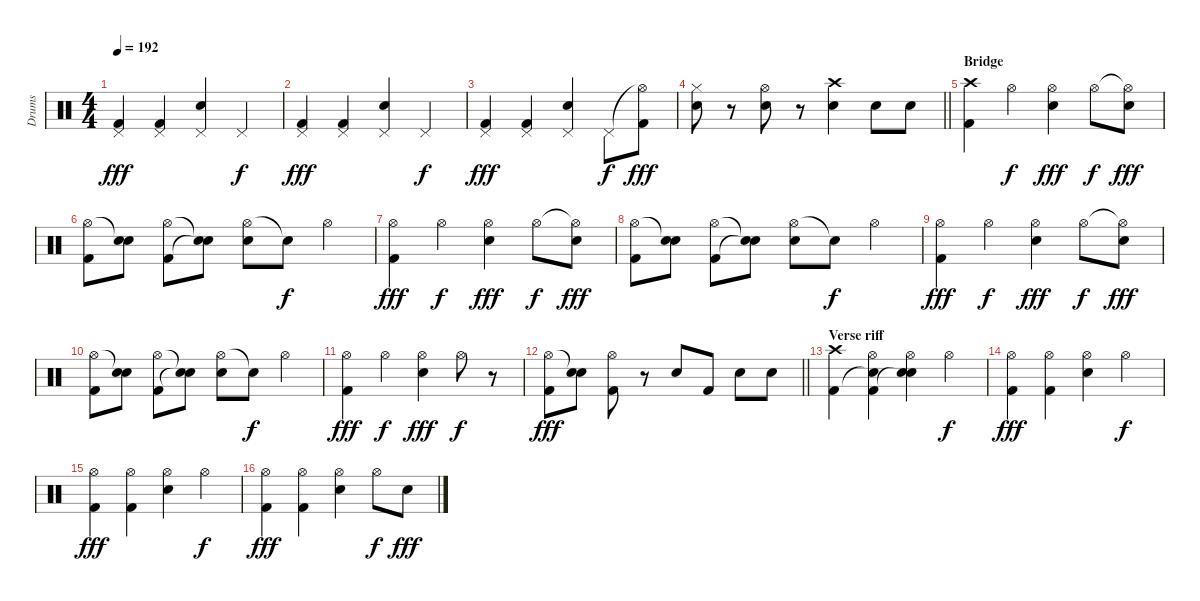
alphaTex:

\track ("Drums" "Drums") {instrument percussion}
\staff {score}
\articulation defaults
\ts (4 4)
\tempo 192
\clef neutral
\ks c
("Pedal Hi-Hat (hit)" "Kick (hit) 2").4{dy fff} ("Pedal Hi-Hat (hit)" "Kick (hit) 2").4 ("Pedal Hi-Hat (hit)" "Snare (hit) 2").4 "Pedal Hi-Hat (hit)".4{dy f} |
("Pedal Hi-Hat (hit)" "Kick (hit) 2").4{dy fff} ("Pedal Hi-Hat (hit)" "Kick (hit) 2").4 ("Pedal Hi-Hat (hit)" "Snare (hit) 2").4 "Pedal Hi-Hat (hit)".4{dy f} |
("Pedal Hi-Hat (hit)" "Kick (hit) 2").4{dy fff} ("Pedal Hi-Hat (hit)" "Kick (hit) 2").4 ("Pedal Hi-Hat (hit)" "Snare (hit) 2").4 "Pedal Hi-Hat (hit)".8{dy f} ("Hi-Hat (open)"{t} "Kick (hit) 2").8{dy fff} |
\barLineRight lightlight
("Hi-Hat (closed)" "Snare (hit) 2").8 r.8 ("Hi-Hat (open)" "Snare (hit) 2").8 r.8 ("Crash high (hit)" "Snare (hit) 2").4 "Snare (hit) 2".8 "Snare (hit) 2".8 |
\section ("" "Bridge")
("Crash high (hit)" "Kick (hit) 2").4 "Hi-Hat (open)".4{dy f} ("Hi-Hat (open)" "Snare (hit) 2").4{dy fff} "Hi-Hat (open)".8{dy f} ("Hi-Hat (open)"{t} "Snare (hit) 2").8{dy fff} |
("Hi-Hat (open)" "Kick (hit) 2").8 ("Snare (hit)"{t} "Snare (hit) 2").8 ("Hi-Hat (open)" "Kick (hit) 2").8 ("Snare (hit)"{t} "Snare (hit)"{t}).8 ("Hi-Hat (open)" "Snare (hit) 2").8 "Snare (hit)"{t}.8{dy f} "Hi-Hat (open)".4 |
("Hi-Hat (open)" "Kick (hit) 2").4{dy fff} "Hi-Hat (open)".4{dy f} ("Hi-Hat (open)" "Snare (hit) 2").4{dy fff} "Hi-Hat (open)".8{dy f} ("Hi-Hat (open)"{t} "Snare (hit) 2").8{dy fff} |
("Hi-Hat (open)" "Kick (hit) 2").8 ("Snare (hit)"{t} "Snare (hit) 2").8 ("Hi-Hat (open)" "Kick (hit) 2").8 ("Snare (hit)"{t} "Snare (hit)"{t}).8 ("Hi-Hat (open)" "Snare (hit) 2").8 "Snare (hit)"{t}.8{dy f} "Hi-Hat (open)".4 |
("Hi-Hat (open)" "Kick (hit) 2").4{dy fff} "Hi-Hat (open)".4{dy f} ("Hi-Hat (open)" "Snare (hit) 2").4{dy fff} "Hi-Hat (open)".8{dy f} ("Hi-Hat (open)"{t} "Snare (hit) 2").8{dy fff} |
("Hi-Hat (open)" "Kick (hit) 2").8 ("Snare (hit)"{t} "Snare (hit) 2").8 ("Hi-Hat (open)" "Kick (hit) 2").8 ("Snare (hit)"{t} "Snare (hit)"{t}).8 ("Hi-Hat (open)" "Snare (hit) 2").8 "Snare (hit)"{t}.8{dy f} "Hi-Hat (open)".4 |
("Hi-Hat (open)" "Kick (hit) 2").4{dy fff} "Hi-Hat (open)".4{dy f} ("Hi-Hat (open)" "Snare (hit) 2").4{dy fff} "Hi-Hat (open)".8{dy f} r.8 |
\barLineRight lightlight
("Hi-Hat (open)" "Kick (hit) 2").8{dy fff} ("Snare (hit)"{t} "Snare (hit) 2").8 ("Hi-Hat (open)" "Kick (hit) 2").8 r.8 "Snare (hit) 2".8 "Kick (hit) 2".8 "Snare (hit) 2".8 "Snare (hit) 2".8 |
\section ("" "Verse riff")
("Crash high (hit)" "Kick (hit) 2").4 ("Hi-Hat (open)" "Snare (hit)"{t} "Kick (hit) 2").4 ("Hi-Hat (open)" "Snare (hit) 2" "Snare (hit)"{t}).4 "Hi-Hat (open)".4{dy f} |
("Hi-Hat (open)" "Kick (hit) 2").4{dy fff} ("Hi-Hat (open)" "Kick (hit) 2").4 ("Hi-Hat (open)" "Snare (hit) 2").4 "Hi-Hat (open)".4{dy f} |
("Hi-Hat (open)" "Kick (hit) 2").4{dy fff} ("Hi-Hat (open)" "Kick (hit) 2").4 ("Hi-Hat (open)" "Snare (hit) 2").4 "Hi-Hat (open)".4{dy f} |
("Hi-Hat (open)" "Kick (hit) 2").4{dy fff} ("Hi-Hat (open)" "Kick (hit) 2").4 ("Hi-Hat (open)" "Snare (hit) 2").4 "Hi-Hat (open)".8{dy f} "Snare (hit) 2".8{dy fff}
